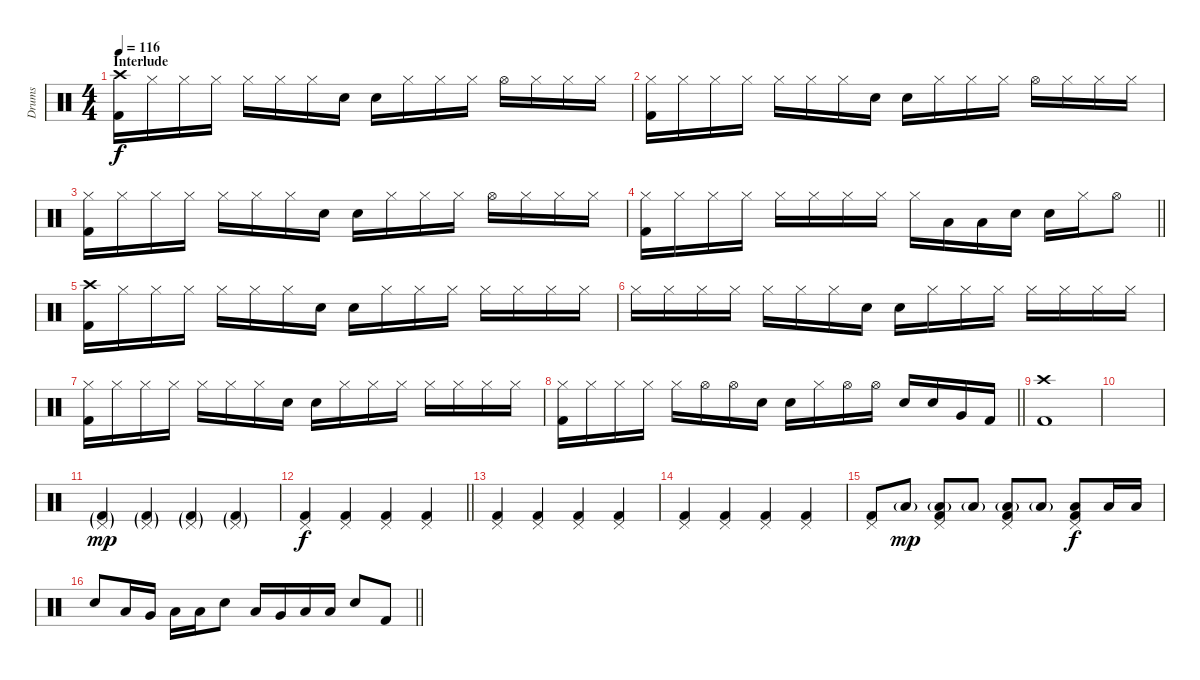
\track ("Drums" "Drums") {instrument percussion}
\staff {score}
\articulation defaults
\ts (4 4)
\section ("" "Interlude")
\tempo 116
\clef neutral
\ks c
("Crash high (hit)" "Kick (hit) 2").16{dy f} "Hi-Hat (closed)".16 "Hi-Hat (closed)".16 "Hi-Hat (closed)".16 "Hi-Hat (closed)".16 "Hi-Hat (closed)".16 "Hi-Hat (closed)".16 "Electric Snare (hit)".16 "Electric Snare (hit)".16 "Hi-Hat (closed)".16 "Hi-Hat (closed)".16 "Hi-Hat (closed)".16 "Hi-Hat (open)".16 "Hi-Hat (closed)".16 "Hi-Hat (closed)".16 "Hi-Hat (closed)".16 |
("Hi-Hat (closed)" "Kick (hit) 2").16 "Hi-Hat (closed)".16 "Hi-Hat (closed)".16 "Hi-Hat (closed)".16 "Hi-Hat (closed)".16 "Hi-Hat (closed)".16 "Hi-Hat (closed)".16 "Electric Snare (hit)".16 "Electric Snare (hit)".16 "Hi-Hat (closed)".16 "Hi-Hat (closed)".16 "Hi-Hat (closed)".16 "Hi-Hat (open)".16 "Hi-Hat (closed)".16 "Hi-Hat (closed)".16 "Hi-Hat (closed)".16 |
("Hi-Hat (closed)" "Kick (hit) 2").16 "Hi-Hat (closed)".16 "Hi-Hat (closed)".16 "Hi-Hat (closed)".16 "Hi-Hat (closed)".16 "Hi-Hat (closed)".16 "Hi-Hat (closed)".16 "Electric Snare (hit)".16 "Electric Snare (hit)".16 "Hi-Hat (closed)".16 "Hi-Hat (closed)".16 "Hi-Hat (closed)".16 "Hi-Hat (open)".16 "Hi-Hat (closed)".16 "Hi-Hat (closed)".16 "Hi-Hat (closed)".16 |
\barLineRight lightlight
("Hi-Hat (closed)" "Kick (hit) 2").16 "Hi-Hat (closed)".16 "Hi-Hat (closed)".16 "Hi-Hat (closed)".16 "Hi-Hat (closed)".16 "Hi-Hat (closed)".16 "Hi-Hat (closed)".16 "Hi-Hat (closed)".16 "Hi-Hat (closed)".16 "Low Floor Tom (hit)".16 "Low Floor Tom (hit)".16 "Electric Snare (hit)".16 "Electric Snare (hit)".16 "Hi-Hat (closed)".16 "Hi-Hat (open)".8 |
("Crash high (hit)" "Kick (hit) 2").16 "Hi-Hat (closed)".16 "Hi-Hat (closed)".16 "Hi-Hat (closed)".16 "Hi-Hat (closed)".16 "Hi-Hat (closed)".16 "Hi-Hat (closed)".16 "Electric Snare (hit)".16 "Electric Snare (hit)".16 "Hi-Hat (closed)".16 "Hi-Hat (closed)".16 "Hi-Hat (closed)".16 "Hi-Hat (closed)".16 "Hi-Hat (closed)".16 "Hi-Hat (closed)".16 "Hi-Hat (closed)".16 |
"Hi-Hat (closed)".16 "Hi-Hat (closed)".16 "Hi-Hat (closed)".16 "Hi-Hat (closed)".16 "Hi-Hat (closed)".16 "Hi-Hat (closed)".16 "Hi-Hat (closed)".16 "Electric Snare (hit)".16 "Electric Snare (hit)".16 "Hi-Hat (closed)".16 "Hi-Hat (closed)".16 "Hi-Hat (closed)".16 "Hi-Hat (closed)".16 "Hi-Hat (closed)".16 "Hi-Hat (closed)".16 "Hi-Hat (closed)".16 |
("Hi-Hat (closed)" "Kick (hit) 2").16 "Hi-Hat (closed)".16 "Hi-Hat (closed)".16 "Hi-Hat (closed)".16 "Hi-Hat (closed)".16 "Hi-Hat (closed)".16 "Hi-Hat (closed)".16 "Electric Snare (hit)".16 "Electric Snare (hit)".16 "Hi-Hat (closed)".16 "Hi-Hat (closed)".16 "Hi-Hat (closed)".16 "Hi-Hat (closed)".16 "Hi-Hat (closed)".16 "Hi-Hat (closed)".16 "Hi-Hat (closed)".16 |
\barLineRight lightlight
("Hi-Hat (closed)" "Kick (hit) 2").16 "Hi-Hat (closed)".16 "Hi-Hat (closed)".16 "Hi-Hat (closed)".16 "Hi-Hat (closed)".16 "Hi-Hat (open)".16 "Hi-Hat (open)".16 "Electric Snare (hit)".16 "Electric Snare (hit)".16 "Hi-Hat (closed)".16 "Hi-Hat (open)".16 "Hi-Hat (open)".16 "Electric Snare (hit)".16 "Electric Snare (hit)".16 "Very Low Tom (hit)".16 "Kick (hit) 2".16 |
("Crash high (hit)" "Kick (hit) 2").1 |
|
("Pedal Hi-Hat (hit)"{g} "Kick (hit) 2"{g}).4{dy mp} ("Pedal Hi-Hat (hit)"{g} "Kick (hit) 2"{g}).4 ("Pedal Hi-Hat (hit)"{g} "Kick (hit) 2"{g}).4 ("Pedal Hi-Hat (hit)"{g} "Kick (hit) 2"{g}).4 |
\barLineRight lightlight
("Pedal Hi-Hat (hit)" "Kick (hit) 2").4{dy f} ("Pedal Hi-Hat (hit)" "Kick (hit) 2").4 ("Pedal Hi-Hat (hit)" "Kick (hit) 2").4 ("Pedal Hi-Hat (hit)" "Kick (hit) 2").4 |
("Pedal Hi-Hat (hit)" "Kick (hit) 2").4 ("Pedal Hi-Hat (hit)" "Kick (hit) 2").4 ("Pedal Hi-Hat (hit)" "Kick (hit) 2").4 ("Pedal Hi-Hat (hit)" "Kick (hit) 2").4 |
("Pedal Hi-Hat (hit)" "Kick (hit) 2").4 ("Pedal Hi-Hat (hit)" "Kick (hit) 2").4 ("Pedal Hi-Hat (hit)" "Kick (hit) 2").4 ("Pedal Hi-Hat (hit)" "Kick (hit) 2").4 |
("Pedal Hi-Hat (hit)" "Kick (hit) 2").8 "Low Floor Tom (hit)"{g}.8{dy mp} ("Low Floor Tom (hit)"{g} "Pedal Hi-Hat (hit)" "Kick (hit) 2").8 "Low Floor Tom (hit)"{g}.8 ("Low Floor Tom (hit)"{g} "Pedal Hi-Hat (hit)" "Kick (hit) 2").8 "Low Floor Tom (hit)"{g}.8 ("Low Floor Tom (hit)" "Pedal Hi-Hat (hit)" "Kick (hit) 2").8{dy f} "Low Floor Tom (hit)".16 "Low Floor Tom (hit)".16 |
\barLineRight lightlight "Electric Snare (hit)".8 "Low Floor Tom (hit)".16 "Very Low Tom (hit)".16 "Low Floor Tom (hit)".16 "Low Floor Tom (hit)".16 "Electric Snare (hit)".8 "Low Floor Tom (hit)".16 "Very Low Tom (hit)".16 "Low Floor Tom (hit)".16 "Low Floor Tom (hit)".16 "Electric Snare (hit)".8 "Kick (hit) 2".8
